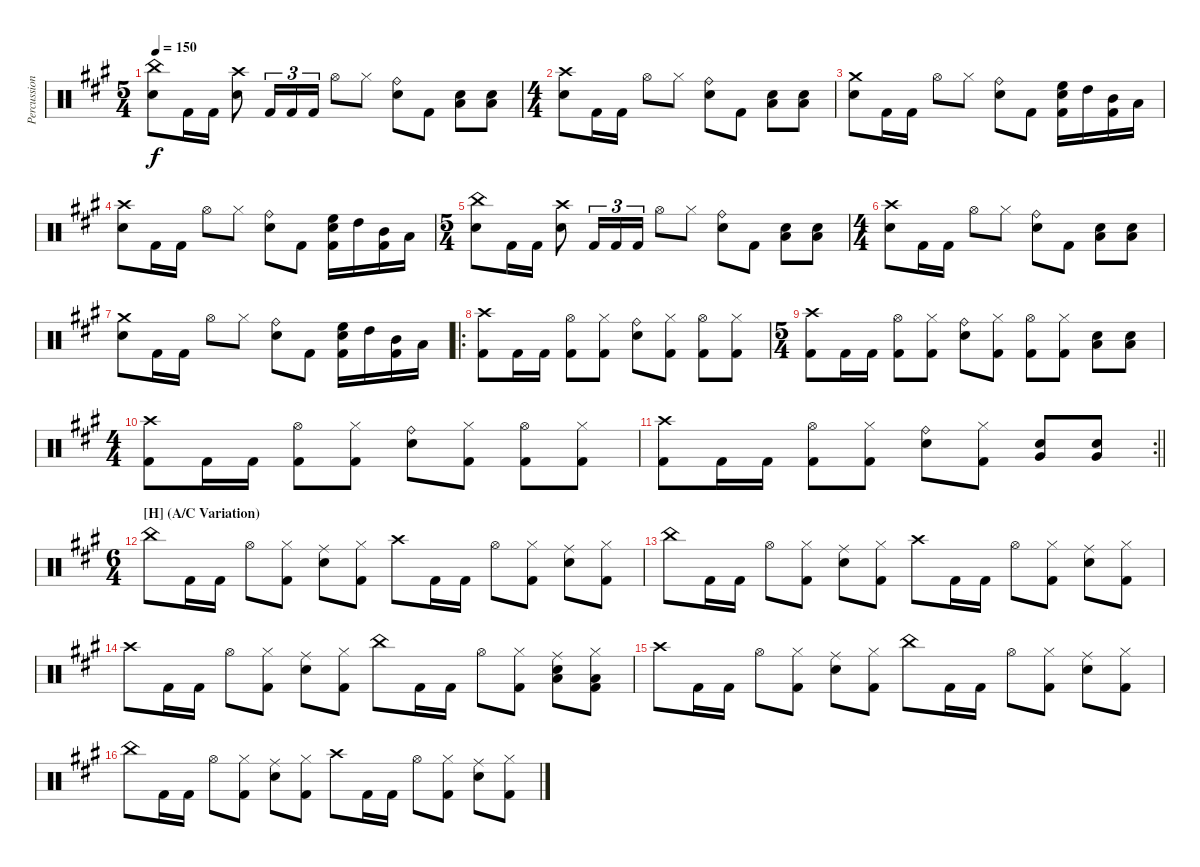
\track ("Percussion" "Percussion") {instrument percussion}
\staff {score}
\articulation defaults
\ts (5 4)
\tempo 150
\clef neutral
\ks f#minor
("China (hit)" "Snare (hit) 2").8{dy f} "Kick (hit) 2".16 "Kick (hit) 2".16 ("Crash high (hit)" "Snare (hit) 2").8 "Kick (hit) 2".16{tu (3 2)} "Kick (hit) 2".16{tu (3 2)} "Kick (hit) 2".16{tu (3 2)} "Hi-Hat (open)".8 "Hi-Hat (closed)".8 ("Ride (bell)" "Snare (hit) 2").8 "Kick (hit) 2".8 ("Snare (hit) 2" "Low Floor Tom (hit)").8 ("Snare (hit) 2" "Low Floor Tom (hit)").8 |
\ts (4 4)
("Crash high (hit)" "Snare (hit) 2").8 "Kick (hit) 2".16 "Kick (hit) 2".16 "Hi-Hat (open)".8 "Hi-Hat (closed)".8 ("Ride (bell)" "Snare (hit) 2").8 "Kick (hit) 2".8 ("Snare (hit) 2" "Low Floor Tom (hit)").8 ("Snare (hit) 2" "Low Floor Tom (hit)").8 |
("Crash medium (hit)" "Snare (hit) 2").8 "Kick (hit) 2".16 "Kick (hit) 2".16 "Hi-Hat (open)".8 "Hi-Hat (closed)".8 ("Ride (bell)" "Snare (hit) 2").8 "Kick (hit) 2".8 ("High Floor Tom (hit)" "Snare (hit) 2" "Kick (hit) 2").16 "High Tom (hit)".16 ("Mid Tom (hit)" "Kick (hit) 2").16 "Low Tom (hit)".16 |
("Crash high (hit)" "Snare (hit) 2").8 "Kick (hit) 2".16 "Kick (hit) 2".16 "Hi-Hat (open)".8 "Hi-Hat (closed)".8 ("Ride (bell)" "Snare (hit) 2").8 "Kick (hit) 2".8 ("High Floor Tom (hit)" "Snare (hit) 2" "Kick (hit) 2").16 "High Tom (hit)".16 ("Mid Tom (hit)" "Kick (hit) 2").16 "Low Tom (hit)".16 |
\ts (5 4)
("China (hit)" "Snare (hit) 2").8 "Kick (hit) 2".16 "Kick (hit) 2".16 ("Crash high (hit)" "Snare (hit) 2").8 "Kick (hit) 2".16{tu (3 2)} "Kick (hit) 2".16{tu (3 2)} "Kick (hit) 2".16{tu (3 2)} "Hi-Hat (open)".8 "Hi-Hat (closed)".8 ("Ride (bell)" "Snare (hit) 2").8 "Kick (hit) 2".8 ("Snare (hit) 2" "Low Floor Tom (hit)").8 ("Snare (hit) 2" "Low Floor Tom (hit)").8 |
\ts (4 4)
("Crash high (hit)" "Snare (hit) 2").8 "Kick (hit) 2".16 "Kick (hit) 2".16 "Hi-Hat (open)".8 "Hi-Hat (closed)".8 ("Ride (bell)" "Snare (hit) 2").8 "Kick (hit) 2".8 ("Snare (hit) 2" "Low Floor Tom (hit)").8 ("Snare (hit) 2" "Low Floor Tom (hit)").8 |
("Crash medium (hit)" "Snare (hit) 2").8 "Kick (hit) 2".16 "Kick (hit) 2".16 "Hi-Hat (open)".8 "Hi-Hat (closed)".8 ("Ride (bell)" "Snare (hit) 2").8 "Kick (hit) 2".8 ("High Floor Tom (hit)" "Snare (hit) 2" "Kick (hit) 2").16 "High Tom (hit)".16 ("Mid Tom (hit)" "Kick (hit) 2").16 "Low Tom (hit)".16 |
\ro
("Crash high (hit)" "Kick (hit) 2").8 "Kick (hit) 2".16 "Kick (hit) 2".16 ("Hi-Hat (open)" "Kick (hit) 2").8 ("Hi-Hat (closed)" "Kick (hit) 2").8 ("Ride (bell)" "Snare (hit) 2").8 ("Hi-Hat (closed)" "Kick (hit) 2").8 ("Hi-Hat (open)" "Kick (hit) 2").8 ("Hi-Hat (closed)" "Kick (hit) 2").8 |
\ts (5 4)
("Crash high (hit)" "Kick (hit) 2").8 "Kick (hit) 2".16 "Kick (hit) 2".16 ("Hi-Hat (open)" "Kick (hit) 2").8 ("Hi-Hat (closed)" "Kick (hit) 2").8 ("Ride (bell)" "Snare (hit) 2").8 ("Hi-Hat (closed)" "Kick (hit) 2").8 ("Hi-Hat (open)" "Kick (hit) 2").8 ("Hi-Hat (closed)" "Kick (hit) 2").8 ("Snare (hit) 2" "Low Floor Tom (hit)").8 ("Snare (hit) 2" "Low Floor Tom (hit)").8 |
\ts (4 4)
("Crash high (hit)" "Kick (hit) 2").8 "Kick (hit) 2".16 "Kick (hit) 2".16 ("Hi-Hat (open)" "Kick (hit) 2").8 ("Hi-Hat (closed)" "Kick (hit) 2").8 ("Ride (bell)" "Snare (hit) 2").8 ("Hi-Hat (closed)" "Kick (hit) 2").8 ("Hi-Hat (open)" "Kick (hit) 2").8 ("Hi-Hat (closed)" "Kick (hit) 2").8 |
\rc 2
\barLineRight lightlight
("Crash high (hit)" "Kick (hit) 2").8 "Kick (hit) 2".16 "Kick (hit) 2".16 ("Hi-Hat (open)" "Kick (hit) 2").8 ("Hi-Hat (closed)" "Kick (hit) 2").8 ("Ride (bell)" "Snare (hit) 2").8 ("Hi-Hat (closed)" "Kick (hit) 2").8 ("Snare (hit) 2" "Very Low Tom (hit)").8 ("Snare (hit) 2" "Very Low Tom (hit)").8 |
\ts (6 4)
\section ("" "[H] (A/C Variation)")
"China (hit)".8 "Kick (hit) 2".16 "Kick (hit) 2".16 "Hi-Hat (open)".8 ("Hi-Hat (closed)" "Kick (hit) 2").8 ("Ride (middle)" "Snare (hit) 2").8 ("Hi-Hat (closed)" "Kick (hit) 2").8 "Crash high (hit)".8 "Kick (hit) 2".16 "Kick (hit) 2".16 "Hi-Hat (open)".8 ("Hi-Hat (closed)" "Kick (hit) 2").8 ("Ride (middle)" "Snare (hit) 2").8 ("Hi-Hat (closed)" "Kick (hit) 2").8 |
"China (hit)".8 "Kick (hit) 2".16 "Kick (hit) 2".16 "Hi-Hat (open)".8 ("Hi-Hat (closed)" "Kick (hit) 2").8 ("Ride (middle)" "Snare (hit) 2").8 ("Hi-Hat (closed)" "Kick (hit) 2").8 "Crash high (hit)".8 "Kick (hit) 2".16 "Kick (hit) 2".16 "Hi-Hat (open)".8 ("Hi-Hat (closed)" "Kick (hit) 2").8 ("Ride (middle)" "Snare (hit) 2").8 ("Hi-Hat (closed)" "Kick (hit) 2").8 |
"Crash high (hit)".8 "Kick (hit) 2".16 "Kick (hit) 2".16 "Hi-Hat (open)".8 ("Hi-Hat (closed)" "Kick (hit) 2").8 ("Ride (middle)" "Snare (hit) 2").8 ("Hi-Hat (closed)" "Kick (hit) 2").8 "China (hit)".8 "Kick (hit) 2".16 "Kick (hit) 2".16 "Hi-Hat (open)".8 ("Hi-Hat (closed)" "Kick (hit) 2").8 ("Ride (middle)" "Snare (hit) 2" "Low Floor Tom (hit)").8 ("Hi-Hat (closed)" "Low Floor Tom (hit)" "Kick (hit) 2").8 |
"Crash high (hit)".8 "Kick (hit) 2".16 "Kick (hit) 2".16 "Hi-Hat (open)".8 ("Hi-Hat (closed)" "Kick (hit) 2").8 ("Ride (middle)" "Snare (hit) 2").8 ("Hi-Hat (closed)" "Kick (hit) 2").8 "China (hit)".8 "Kick (hit) 2".16 "Kick (hit) 2".16 "Hi-Hat (open)".8 ("Hi-Hat (closed)" "Kick (hit) 2").8 ("Ride (middle)" "Snare (hit) 2").8 ("Hi-Hat (closed)" "Kick (hit) 2").8 |
"China (hit)".8 "Kick (hit) 2".16 "Kick (hit) 2".16 "Hi-Hat (open)".8 ("Hi-Hat (closed)" "Kick (hit) 2").8 ("Ride (middle)" "Snare (hit) 2").8 ("Hi-Hat (closed)" "Kick (hit) 2").8 "Crash high (hit)".8 "Kick (hit) 2".16 "Kick (hit) 2".16 "Hi-Hat (open)".8 ("Hi-Hat (closed)" "Kick (hit) 2").8 ("Ride (middle)" "Snare (hit) 2").8 ("Hi-Hat (closed)" "Kick (hit) 2").8
